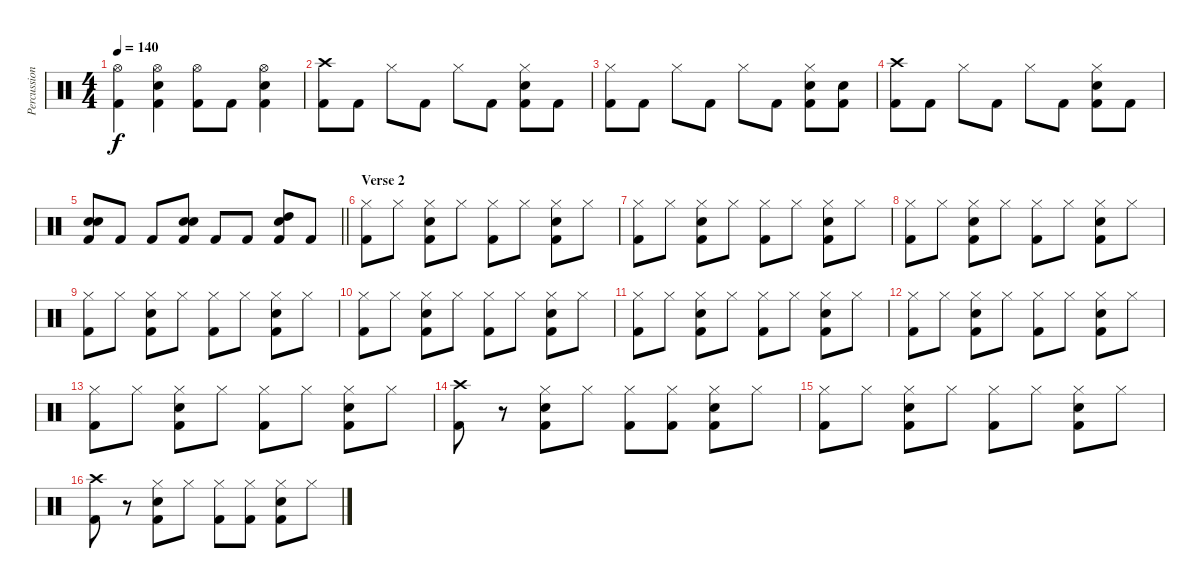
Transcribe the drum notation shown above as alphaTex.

\track ("Percussions" "Percussion") {instrument percussion}
\staff {score}
\articulation defaults
\ts (4 4)
\tempo 140
\clef neutral
\ks c
("Hi-Hat (open)" "Kick (hit) 2").4{dy f} ("Hi-Hat (open)" "Electric Snare (hit)" "Kick (hit) 2").4 ("Hi-Hat (open)" "Kick (hit) 2").8 "Kick (hit) 2".8 ("Hi-Hat (open)" "Electric Snare (hit)" "Kick (hit) 2").4 |
("Crash high (hit)" "Kick (hit) 2").8 "Kick (hit) 2".8 "Hi-Hat (closed)".8 "Kick (hit) 2".8 "Hi-Hat (closed)".8 "Kick (hit) 2".8 ("Hi-Hat (closed)" "Electric Snare (hit)" "Kick (hit) 2").8 "Kick (hit) 2".8 |
("Hi-Hat (closed)" "Kick (hit) 2").8 "Kick (hit) 2".8 "Hi-Hat (closed)".8 "Kick (hit) 2".8 "Hi-Hat (closed)".8 "Kick (hit) 2".8 ("Hi-Hat (closed)" "Electric Snare (hit)" "Kick (hit) 2").8 ("Electric Snare (hit)" "Kick (hit) 2").8 |
("Crash high (hit)" "Kick (hit) 2").8 "Kick (hit) 2".8 "Hi-Hat (closed)".8 "Kick (hit) 2".8 "Hi-Hat (closed)".8 "Kick (hit) 2".8 ("Hi-Hat (closed)" "Electric Snare (hit)" "Kick (hit) 2").8 "Kick (hit) 2".8 |
\barLineRight lightlight
("Snare (hit) 2" "Electric Snare (hit)" "Kick (hit) 2").8 "Kick (hit) 2".8 "Kick (hit) 2".8 ("Snare (hit) 2" "Electric Snare (hit)" "Kick (hit) 2").8 "Kick (hit) 2".8 "Kick (hit) 2".8 ("Electric Snare (hit)" "High Tom (hit)" "Kick (hit) 2").8 "Kick (hit) 2".8 |
\section ("" "Verse 2")
("Hi-Hat (closed)" "Kick (hit) 2").8 "Hi-Hat (closed)".8 ("Hi-Hat (closed)" "Snare (hit) 2" "Kick (hit) 2").8 "Hi-Hat (closed)".8 ("Hi-Hat (closed)" "Kick (hit) 2").8 "Hi-Hat (closed)".8 ("Hi-Hat (closed)" "Snare (hit) 2" "Kick (hit) 2").8 "Hi-Hat (closed)".8 |
("Hi-Hat (closed)" "Kick (hit) 2").8 "Hi-Hat (closed)".8 ("Hi-Hat (closed)" "Snare (hit) 2" "Kick (hit) 2").8 "Hi-Hat (closed)".8 ("Hi-Hat (closed)" "Kick (hit) 2").8 "Hi-Hat (closed)".8 ("Hi-Hat (closed)" "Snare (hit) 2" "Kick (hit) 2").8 "Hi-Hat (closed)".8 |
("Hi-Hat (closed)" "Kick (hit) 2").8 "Hi-Hat (closed)".8 ("Hi-Hat (closed)" "Snare (hit) 2" "Kick (hit) 2").8 "Hi-Hat (closed)".8 ("Hi-Hat (closed)" "Kick (hit) 2").8 "Hi-Hat (closed)".8 ("Hi-Hat (closed)" "Snare (hit) 2" "Kick (hit) 2").8 "Hi-Hat (closed)".8 |
("Hi-Hat (closed)" "Kick (hit) 2").8 "Hi-Hat (closed)".8 ("Hi-Hat (closed)" "Snare (hit) 2" "Kick (hit) 2").8 "Hi-Hat (closed)".8 ("Hi-Hat (closed)" "Kick (hit) 2").8 "Hi-Hat (closed)".8 ("Hi-Hat (closed)" "Snare (hit) 2" "Kick (hit) 2").8 "Hi-Hat (closed)".8 |
("Hi-Hat (closed)" "Kick (hit) 2").8 "Hi-Hat (closed)".8 ("Hi-Hat (closed)" "Snare (hit) 2" "Kick (hit) 2").8 "Hi-Hat (closed)".8 ("Hi-Hat (closed)" "Kick (hit) 2").8 "Hi-Hat (closed)".8 ("Hi-Hat (closed)" "Snare (hit) 2" "Kick (hit) 2").8 "Hi-Hat (closed)".8 |
("Hi-Hat (closed)" "Kick (hit) 2").8 "Hi-Hat (closed)".8 ("Hi-Hat (closed)" "Snare (hit) 2" "Kick (hit) 2").8 "Hi-Hat (closed)".8 ("Hi-Hat (closed)" "Kick (hit) 2").8 "Hi-Hat (closed)".8 ("Hi-Hat (closed)" "Snare (hit) 2" "Kick (hit) 2").8 "Hi-Hat (closed)".8 |
("Hi-Hat (closed)" "Kick (hit) 2").8 "Hi-Hat (closed)".8 ("Hi-Hat (closed)" "Snare (hit) 2" "Kick (hit) 2").8 "Hi-Hat (closed)".8 ("Hi-Hat (closed)" "Kick (hit) 2").8 "Hi-Hat (closed)".8 ("Hi-Hat (closed)" "Snare (hit) 2" "Kick (hit) 2").8 "Hi-Hat (closed)".8 |
("Hi-Hat (closed)" "Kick (hit) 2").8 "Hi-Hat (closed)".8 ("Hi-Hat (closed)" "Snare (hit) 2" "Kick (hit) 2").8 "Hi-Hat (closed)".8 ("Hi-Hat (closed)" "Kick (hit) 2").8 "Hi-Hat (closed)".8 ("Hi-Hat (closed)" "Snare (hit) 2" "Kick (hit) 2").8 "Hi-Hat (closed)".8 |
("Crash high (hit)" "Kick (hit) 2").8 r.8 ("Hi-Hat (closed)" "Snare (hit) 2" "Kick (hit) 2").8 "Hi-Hat (closed)".8 ("Hi-Hat (closed)" "Kick (hit) 2").8 ("Hi-Hat (closed)" "Kick (hit) 2").8 ("Hi-Hat (closed)" "Snare (hit) 2" "Kick (hit) 2").8 "Hi-Hat (closed)".8 |
("Hi-Hat (closed)" "Kick (hit) 2").8 "Hi-Hat (closed)".8 ("Hi-Hat (closed)" "Snare (hit) 2" "Kick (hit) 2").8 "Hi-Hat (closed)".8 ("Hi-Hat (closed)" "Kick (hit) 2").8 "Hi-Hat (closed)".8 ("Hi-Hat (closed)" "Snare (hit) 2" "Kick (hit) 2").8 "Hi-Hat (closed)".8 |
("Crash high (hit)" "Kick (hit) 2").8 r.8 ("Hi-Hat (closed)" "Snare (hit) 2" "Kick (hit) 2").8 "Hi-Hat (closed)".8 ("Hi-Hat (closed)" "Kick (hit) 2").8 ("Hi-Hat (closed)" "Kick (hit) 2").8 ("Hi-Hat (closed)" "Snare (hit) 2" "Kick (hit) 2").8 "Hi-Hat (closed)".8
